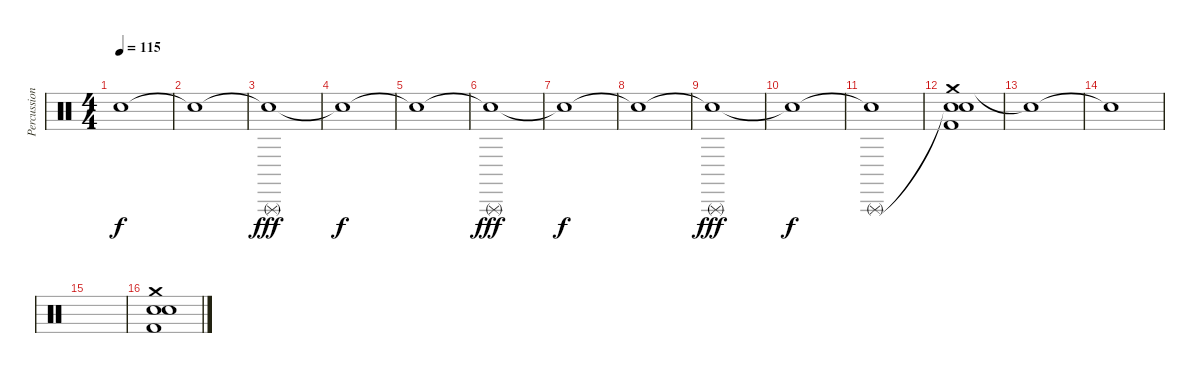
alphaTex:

\track ("Percussioni" "Percussion") {instrument percussion}
\staff {score}
\articulation defaults
\ts (4 4)
\tempo 115
\clef neutral
\ks c "Snare (hit)"{t}.1{dy f}
|
"Snare (hit)"{t}.1 |
("Snare (hit)"{t} "Triangle (rnute)").1{dy fff} |
"Snare (hit)"{t}.1{dy f} |
"Snare (hit)"{t}.1 |
("Snare (hit)"{t} "Triangle (rnute)").1{dy fff} |
"Snare (hit)"{t}.1{dy f} |
"Snare (hit)"{t}.1 |
("Snare (hit)"{t} "Triangle (rnute)").1{dy fff} |
"Snare (hit)"{t}.1{dy f} |
("Snare (hit)"{t} "Triangle (rnute)").1 |
("Crash medium (hit)" "Snare (hit)"{t} "Snare (hit) 2" "Kick (hit) 2").1 |
"Snare (hit)"{t}.1 |
"Snare (hit)"{t}.1 |
|
("Crash medium (hit)" "Snare (hit)" "Snare (hit) 2" "Kick (hit) 2").1
